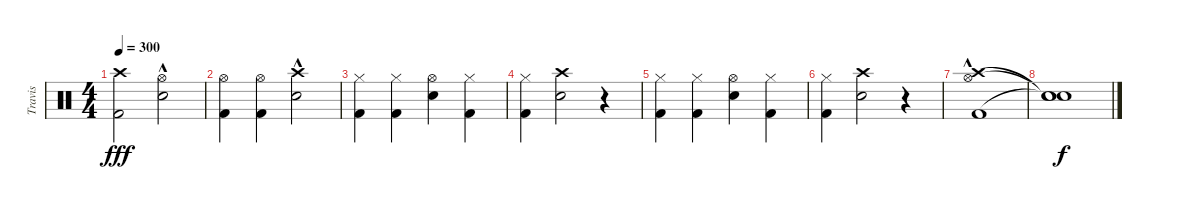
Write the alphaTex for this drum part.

\track ("Travis" "Travis") {instrument percussion}
\staff {score}
\articulation defaults
\ts (4 4)
\tempo 300
\clef neutral
\ks c
("Crash high (hit)" "Kick (hit) 2").2{dy fff} ("Hi-Hat (open)" "Electric Snare (hit)"{hac}).2 |
("Hi-Hat (open)" "Kick (hit) 2").4 ("Hi-Hat (open)" "Kick (hit) 2").4 ("Crash high (hit)" "Electric Snare (hit)"{hac}).2 |
("Hi-Hat (closed)" "Kick (hit) 2").4 ("Hi-Hat (closed)" "Kick (hit) 2").4 ("Hi-Hat (open)" "Electric Snare (hit)").4 ("Hi-Hat (closed)" "Kick (hit) 2").4 |
("Hi-Hat (closed)" "Kick (hit) 2").4 ("Crash high (hit)" "Electric Snare (hit)").2 r.4 |
("Hi-Hat (closed)" "Kick (hit) 2").4 ("Hi-Hat (closed)" "Kick (hit) 2").4 ("Hi-Hat (open)" "Electric Snare (hit)").4 ("Hi-Hat (closed)" "Kick (hit) 2").4 |
("Hi-Hat (closed)" "Kick (hit) 2").4 ("Crash high (hit)" "Electric Snare (hit)").2 r.4 |
("Kick (hit) 2"{hac} "Hi-Hat (open)"{hac} "Crash high (hit)"{hac}).1 |
("Snare (hit)"{t} "Snare (hit)"{t} "Snare (hit)"{t}).1{dy f}
